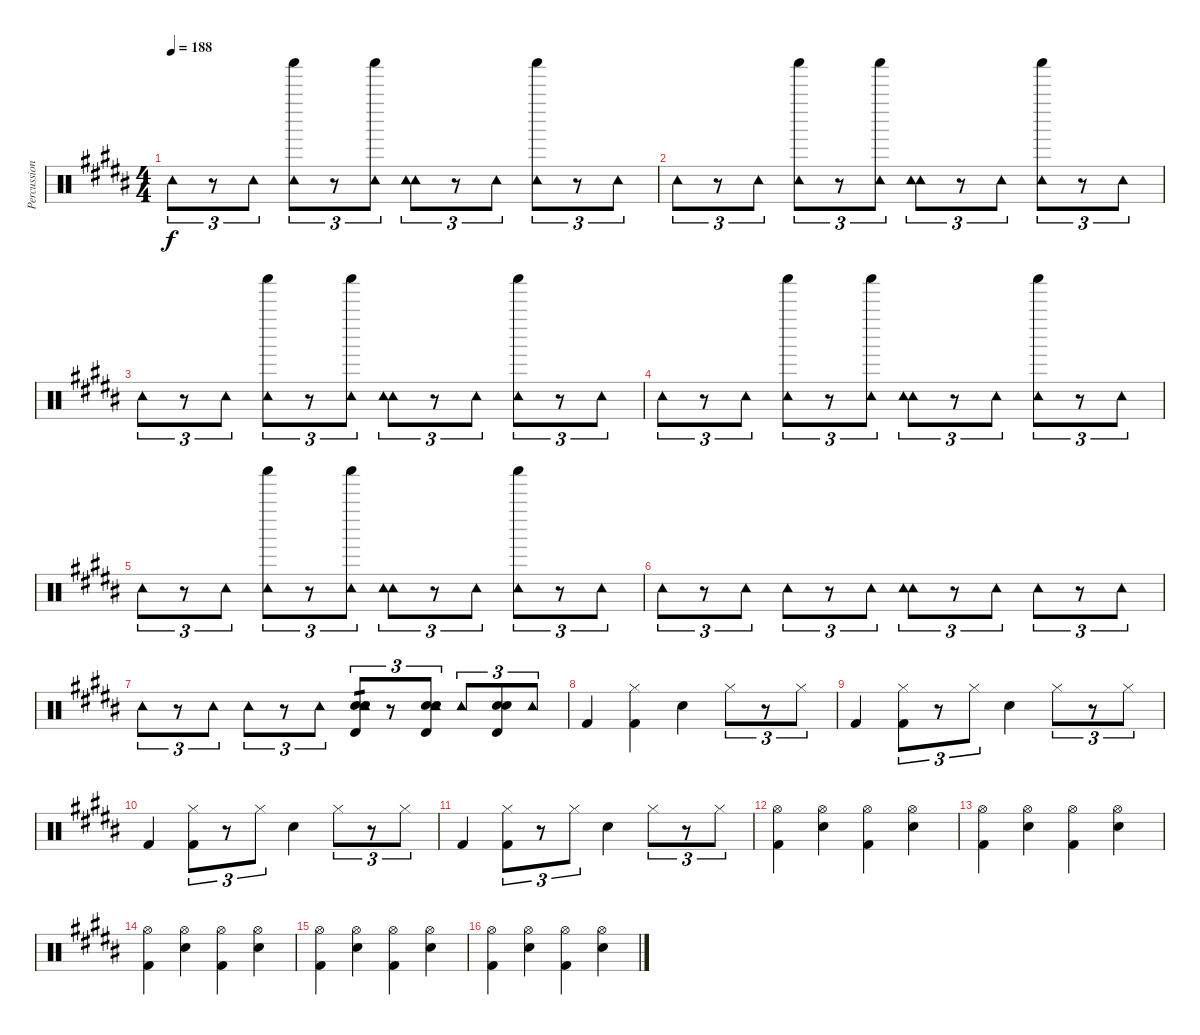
\track ("Percussion" "Percussion") {instrument percussion}
\staff {score}
\articulation defaults
\ts (4 4)
\tempo 188
\clef neutral
\ks b "Tambourine (hit)".8{tu (3 2) dy f}
r.8{tu (3 2)} "Tambourine (hit)".8{tu (3 2)} ("Shaker (hit)" "Tambourine (hit)").8{tu (3 2)} r.8{tu (3 2)} ("Shaker (hit)" "Tambourine (hit)").8{tu (3 2)} ("Tambourine (hit)" "Tambourine (hit)").8{tu (3 2)} r.8{tu (3 2)} "Tambourine (hit)".8{tu (3 2)} ("Shaker (hit)" "Tambourine (hit)").8{tu (3 2)} r.8{tu (3 2)} "Tambourine (hit)".8{tu (3 2)} |
"Tambourine (hit)".8{tu (3 2)} r.8{tu (3 2)} "Tambourine (hit)".8{tu (3 2)} ("Shaker (hit)" "Tambourine (hit)").8{tu (3 2)} r.8{tu (3 2)} ("Shaker (hit)" "Tambourine (hit)").8{tu (3 2)} ("Tambourine (hit)" "Tambourine (hit)").8{tu (3 2)} r.8{tu (3 2)} "Tambourine (hit)".8{tu (3 2)} ("Shaker (hit)" "Tambourine (hit)").8{tu (3 2)} r.8{tu (3 2)} "Tambourine (hit)".8{tu (3 2)} |
"Tambourine (hit)".8{tu (3 2)} r.8{tu (3 2)} "Tambourine (hit)".8{tu (3 2)} ("Shaker (hit)" "Tambourine (hit)").8{tu (3 2)} r.8{tu (3 2)} ("Shaker (hit)" "Tambourine (hit)").8{tu (3 2)} ("Tambourine (hit)" "Tambourine (hit)").8{tu (3 2)} r.8{tu (3 2)} "Tambourine (hit)".8{tu (3 2)} ("Shaker (hit)" "Tambourine (hit)").8{tu (3 2)} r.8{tu (3 2)} "Tambourine (hit)".8{tu (3 2)} |
"Tambourine (hit)".8{tu (3 2)} r.8{tu (3 2)} "Tambourine (hit)".8{tu (3 2)} ("Shaker (hit)" "Tambourine (hit)").8{tu (3 2)} r.8{tu (3 2)} ("Shaker (hit)" "Tambourine (hit)").8{tu (3 2)} ("Tambourine (hit)" "Tambourine (hit)").8{tu (3 2)} r.8{tu (3 2)} "Tambourine (hit)".8{tu (3 2)} ("Shaker (hit)" "Tambourine (hit)").8{tu (3 2)} r.8{tu (3 2)} "Tambourine (hit)".8{tu (3 2)} |
"Tambourine (hit)".8{tu (3 2)} r.8{tu (3 2)} "Tambourine (hit)".8{tu (3 2)} ("Shaker (hit)" "Tambourine (hit)").8{tu (3 2)} r.8{tu (3 2)} ("Shaker (hit)" "Tambourine (hit)").8{tu (3 2)} ("Tambourine (hit)" "Tambourine (hit)").8{tu (3 2)} r.8{tu (3 2)} "Tambourine (hit)".8{tu (3 2)} ("Shaker (hit)" "Tambourine (hit)").8{tu (3 2)} r.8{tu (3 2)} "Tambourine (hit)".8{tu (3 2)} |
"Tambourine (hit)".8{tu (3 2)} r.8{tu (3 2)} "Tambourine (hit)".8{tu (3 2)} "Tambourine (hit)".8{tu (3 2)} r.8{tu (3 2)} "Tambourine (hit)".8{tu (3 2)} ("Tambourine (hit)" "Tambourine (hit)").8{tu (3 2)} r.8{tu (3 2)} "Tambourine (hit)".8{tu (3 2)} "Tambourine (hit)".8{tu (3 2)} r.8{tu (3 2)} "Tambourine (hit)".8{tu (3 2)} |
"Tambourine (hit)".8{tu (3 2)} r.8{tu (3 2)} "Tambourine (hit)".8{tu (3 2)} "Tambourine (hit)".8{tu (3 2)} r.8{tu (3 2)} "Tambourine (hit)".8{tu (3 2)} ("Electric Snare (hit)" "Tambourine (hit)" "Tambourine (hit)" "Electric Snare (hit)" "Timbale high (hit)").8{tu (3 2) tp 1} r.8{tu (3 2)} ("Electric Snare (hit)" "Tambourine (hit)" "Electric Snare (hit)" "Timbale high (hit)").8{tu (3 2) volume 10} "Tambourine (hit)".8{tu (3 2) volume 14} ("Electric Snare (hit)" "Electric Snare (hit)" "Timbale high (hit)").8{tu (3 2) volume 5} "Tambourine (hit)".8{tu (3 2) volume 14} |
"Kick (hit) 2".4 ("Hi-Hat (closed)" "Kick (hit) 2").4 "Electric Snare (hit)".4 "Hi-Hat (closed)".8{tu (3 2)} r.8{tu (3 2)} "Hi-Hat (closed)".8{tu (3 2)} |
"Kick (hit) 2".4 ("Hi-Hat (closed)" "Kick (hit) 2").8{tu (3 2)} r.8{tu (3 2)} "Hi-Hat (closed)".8{tu (3 2)} "Electric Snare (hit)".4 "Hi-Hat (closed)".8{tu (3 2)} r.8{tu (3 2)} "Hi-Hat (closed)".8{tu (3 2)} |
"Kick (hit) 2".4 ("Hi-Hat (closed)" "Kick (hit) 2").8{tu (3 2)} r.8{tu (3 2)} "Hi-Hat (closed)".8{tu (3 2)} "Electric Snare (hit)".4 "Hi-Hat (closed)".8{tu (3 2)} r.8{tu (3 2)} "Hi-Hat (closed)".8{tu (3 2)} |
"Kick (hit) 2".4 ("Hi-Hat (closed)" "Kick (hit) 2").8{tu (3 2)} r.8{tu (3 2)} "Hi-Hat (closed)".8{tu (3 2)} "Electric Snare (hit)".4 "Hi-Hat (closed)".8{tu (3 2)} r.8{tu (3 2)} "Hi-Hat (closed)".8{tu (3 2)} |
("Hi-Hat (open)" "Kick (hit) 2").4 ("Hi-Hat (open)" "Electric Snare (hit)").4 ("Hi-Hat (open)" "Kick (hit) 2").4 ("Hi-Hat (open)" "Electric Snare (hit)").4 |
("Hi-Hat (open)" "Kick (hit) 2").4 ("Hi-Hat (open)" "Electric Snare (hit)").4 ("Hi-Hat (open)" "Kick (hit) 2").4 ("Hi-Hat (open)" "Electric Snare (hit)").4 |
("Hi-Hat (open)" "Kick (hit) 2").4 ("Hi-Hat (open)" "Electric Snare (hit)").4 ("Hi-Hat (open)" "Kick (hit) 2").4 ("Hi-Hat (open)" "Electric Snare (hit)").4 |
("Hi-Hat (open)" "Kick (hit) 2").4 ("Hi-Hat (open)" "Electric Snare (hit)").4 ("Hi-Hat (open)" "Kick (hit) 2").4 ("Hi-Hat (open)" "Electric Snare (hit)").4 |
("Hi-Hat (open)" "Kick (hit) 2").4 ("Hi-Hat (open)" "Electric Snare (hit)").4 ("Hi-Hat (open)" "Kick (hit) 2").4 ("Hi-Hat (open)" "Electric Snare (hit)").4
